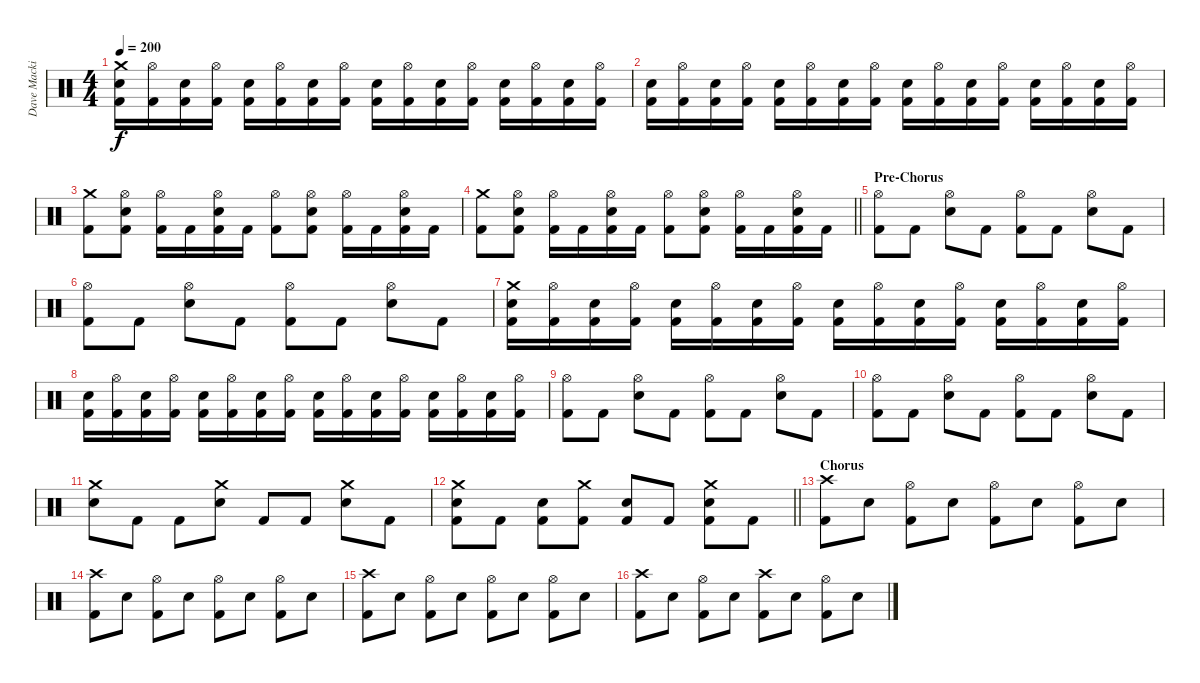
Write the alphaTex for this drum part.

\track ("Dave Mackintosh | Drums" "Dave Macki") {instrument percussion}
\staff {score}
\articulation defaults
\ts (4 4)
\tempo 200
\clef neutral
\ks c
("Crash medium (hit)" "Snare (hit) 2" "Kick (hit) 2").16{dy f} ("Hi-Hat (open)" "Kick (hit) 2").16 ("Snare (hit) 2" "Kick (hit) 2").16 ("Hi-Hat (open)" "Kick (hit) 2").16 ("Snare (hit) 2" "Kick (hit) 2").16 ("Hi-Hat (open)" "Kick (hit) 2").16 ("Snare (hit) 2" "Kick (hit) 2").16 ("Hi-Hat (open)" "Kick (hit) 2").16 ("Snare (hit) 2" "Kick (hit) 2").16 ("Hi-Hat (open)" "Kick (hit) 2").16 ("Snare (hit) 2" "Kick (hit) 2").16 ("Hi-Hat (open)" "Kick (hit) 2").16 ("Snare (hit) 2" "Kick (hit) 2").16 ("Hi-Hat (open)" "Kick (hit) 2").16 ("Snare (hit) 2" "Kick (hit) 2").16 ("Hi-Hat (open)" "Kick (hit) 2").16 |
("Snare (hit) 2" "Kick (hit) 2").16 ("Hi-Hat (open)" "Kick (hit) 2").16 ("Snare (hit) 2" "Kick (hit) 2").16 ("Hi-Hat (open)" "Kick (hit) 2").16 ("Snare (hit) 2" "Kick (hit) 2").16 ("Hi-Hat (open)" "Kick (hit) 2").16 ("Snare (hit) 2" "Kick (hit) 2").16 ("Hi-Hat (open)" "Kick (hit) 2").16 ("Snare (hit) 2" "Kick (hit) 2").16 ("Hi-Hat (open)" "Kick (hit) 2").16 ("Snare (hit) 2" "Kick (hit) 2").16 ("Hi-Hat (open)" "Kick (hit) 2").16 ("Snare (hit) 2" "Kick (hit) 2").16 ("Hi-Hat (open)" "Kick (hit) 2").16 ("Snare (hit) 2" "Kick (hit) 2").16 ("Hi-Hat (open)" "Kick (hit) 2").16 |
("Crash medium (hit)" "Kick (hit) 2").8 ("Hi-Hat (open)" "Snare (hit) 2" "Kick (hit) 2").8 ("Hi-Hat (open)" "Kick (hit) 2").16 "Kick (hit) 2".16 ("Hi-Hat (open)" "Snare (hit) 2" "Kick (hit) 2").16 "Kick (hit) 2".16 ("Hi-Hat (open)" "Kick (hit) 2").8 ("Hi-Hat (open)" "Snare (hit) 2" "Kick (hit) 2").8 ("Hi-Hat (open)" "Kick (hit) 2").16 "Kick (hit) 2".16 ("Hi-Hat (open)" "Snare (hit) 2" "Kick (hit) 2").16 "Kick (hit) 2".16 |
\barLineRight lightlight
("Crash medium (hit)" "Kick (hit) 2").8 ("Hi-Hat (open)" "Snare (hit) 2" "Kick (hit) 2").8 ("Hi-Hat (open)" "Kick (hit) 2").16 "Kick (hit) 2".16 ("Hi-Hat (open)" "Snare (hit) 2" "Kick (hit) 2").16 "Kick (hit) 2".16 ("Hi-Hat (open)" "Kick (hit) 2").8 ("Hi-Hat (open)" "Snare (hit) 2" "Kick (hit) 2").8 ("Hi-Hat (open)" "Kick (hit) 2").16 "Kick (hit) 2".16 ("Hi-Hat (open)" "Snare (hit) 2" "Kick (hit) 2").16 "Kick (hit) 2".16 |
\section ("" "Pre-Chorus")
("Hi-Hat (open)" "Kick (hit) 2").8 "Kick (hit) 2".8 ("Hi-Hat (open)" "Snare (hit) 2").8 "Kick (hit) 2".8 ("Hi-Hat (open)" "Kick (hit) 2").8 "Kick (hit) 2".8 ("Hi-Hat (open)" "Snare (hit) 2").8 "Kick (hit) 2".8 |
("Hi-Hat (open)" "Kick (hit) 2").8 "Kick (hit) 2".8 ("Hi-Hat (open)" "Snare (hit) 2").8 "Kick (hit) 2".8 ("Hi-Hat (open)" "Kick (hit) 2").8 "Kick (hit) 2".8 ("Hi-Hat (open)" "Snare (hit) 2").8 "Kick (hit) 2".8 |
("Crash medium (hit)" "Snare (hit) 2" "Kick (hit) 2").16 ("Hi-Hat (open)" "Kick (hit) 2").16 ("Snare (hit) 2" "Kick (hit) 2").16 ("Hi-Hat (open)" "Kick (hit) 2").16 ("Snare (hit) 2" "Kick (hit) 2").16 ("Hi-Hat (open)" "Kick (hit) 2").16 ("Snare (hit) 2" "Kick (hit) 2").16 ("Hi-Hat (open)" "Kick (hit) 2").16 ("Snare (hit) 2" "Kick (hit) 2").16 ("Hi-Hat (open)" "Kick (hit) 2").16 ("Snare (hit) 2" "Kick (hit) 2").16 ("Hi-Hat (open)" "Kick (hit) 2").16 ("Snare (hit) 2" "Kick (hit) 2").16 ("Hi-Hat (open)" "Kick (hit) 2").16 ("Snare (hit) 2" "Kick (hit) 2").16 ("Hi-Hat (open)" "Kick (hit) 2").16 |
("Snare (hit) 2" "Kick (hit) 2").16 ("Hi-Hat (open)" "Kick (hit) 2").16 ("Snare (hit) 2" "Kick (hit) 2").16 ("Hi-Hat (open)" "Kick (hit) 2").16 ("Snare (hit) 2" "Kick (hit) 2").16 ("Hi-Hat (open)" "Kick (hit) 2").16 ("Snare (hit) 2" "Kick (hit) 2").16 ("Hi-Hat (open)" "Kick (hit) 2").16 ("Snare (hit) 2" "Kick (hit) 2").16 ("Hi-Hat (open)" "Kick (hit) 2").16 ("Snare (hit) 2" "Kick (hit) 2").16 ("Hi-Hat (open)" "Kick (hit) 2").16 ("Snare (hit) 2" "Kick (hit) 2").16 ("Hi-Hat (open)" "Kick (hit) 2").16 ("Snare (hit) 2" "Kick (hit) 2").16 ("Hi-Hat (open)" "Kick (hit) 2").16 |
("Hi-Hat (open)" "Kick (hit) 2").8 "Kick (hit) 2".8 ("Hi-Hat (open)" "Snare (hit) 2").8 "Kick (hit) 2".8 ("Hi-Hat (open)" "Kick (hit) 2").8 "Kick (hit) 2".8 ("Hi-Hat (open)" "Snare (hit) 2").8 "Kick (hit) 2".8 |
("Hi-Hat (open)" "Kick (hit) 2").8 "Kick (hit) 2".8 ("Hi-Hat (open)" "Snare (hit) 2").8 "Kick (hit) 2".8 ("Hi-Hat (open)" "Kick (hit) 2").8 "Kick (hit) 2".8 ("Hi-Hat (open)" "Snare (hit) 2").8 "Kick (hit) 2".8 |
("Crash medium (hit)" "Snare (hit) 2").8 "Kick (hit) 2".8 "Kick (hit) 2".8 ("Crash medium (hit)" "Snare (hit) 2").8 "Kick (hit) 2".8 "Kick (hit) 2".8 ("Crash medium (hit)" "Snare (hit) 2").8 "Kick (hit) 2".8 |
\barLineRight lightlight
("Crash medium (hit)" "Snare (hit) 2" "Kick (hit) 2").8 "Kick (hit) 2".8 ("Snare (hit) 2" "Kick (hit) 2").8 ("Crash medium (hit)" "Kick (hit) 2").8 ("Snare (hit) 2" "Kick (hit) 2").8 "Kick (hit) 2".8 ("Crash medium (hit)" "Snare (hit) 2" "Kick (hit) 2").8 "Kick (hit) 2".8 |
\section ("" "Chorus")
("Crash high (hit)" "Kick (hit) 2").8 "Snare (hit) 2".8 ("Hi-Hat (open)" "Kick (hit) 2").8 "Snare (hit) 2".8 ("Hi-Hat (open)" "Kick (hit) 2").8 "Snare (hit) 2".8 ("Hi-Hat (open)" "Kick (hit) 2").8 "Snare (hit) 2".8 |
("Crash high (hit)" "Kick (hit) 2").8 "Snare (hit) 2".8 ("Hi-Hat (open)" "Kick (hit) 2").8 "Snare (hit) 2".8 ("Hi-Hat (open)" "Kick (hit) 2").8 "Snare (hit) 2".8 ("Hi-Hat (open)" "Kick (hit) 2").8 "Snare (hit) 2".8 |
("Crash high (hit)" "Kick (hit) 2").8 "Snare (hit) 2".8 ("Hi-Hat (open)" "Kick (hit) 2").8 "Snare (hit) 2".8 ("Hi-Hat (open)" "Kick (hit) 2").8 "Snare (hit) 2".8 ("Hi-Hat (open)" "Kick (hit) 2").8 "Snare (hit) 2".8 |
("Crash high (hit)" "Kick (hit) 2").8 "Snare (hit) 2".8 ("Hi-Hat (open)" "Kick (hit) 2").8 "Snare (hit) 2".8 ("Crash high (hit)" "Kick (hit) 2").8 "Snare (hit) 2".8 ("Hi-Hat (open)" "Kick (hit) 2").8 "Snare (hit) 2".8
